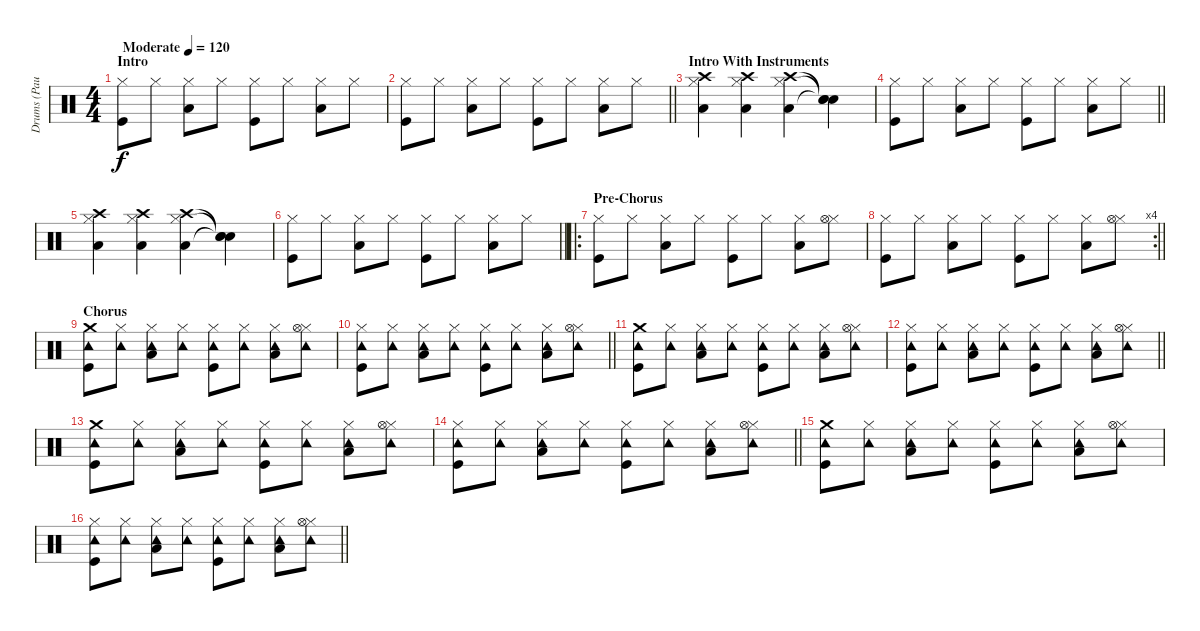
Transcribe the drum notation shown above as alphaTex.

\track ("Drums (Paul Thomson)" "Drums (Pau") {instrument percussion}
\staff
\articulation defaults
\ts (4 4)
\section ("" "Intro")
\tempo (120 "Moderate")
\clef neutral
\ks c
("Hi-Hat (closed)" "Kick (hit)").8{dy f} "Hi-Hat (closed)".8 ("Hi-Hat (closed)" "Low Floor Tom (hit)").8 "Hi-Hat (closed)".8 ("Hi-Hat (closed)" "Kick (hit)").8 "Hi-Hat (closed)".8 ("Hi-Hat (closed)" "Low Floor Tom (hit)").8 "Hi-Hat (closed)".8 |
\barLineRight lightlight
("Hi-Hat (closed)" "Kick (hit)").8 "Hi-Hat (closed)".8 ("Hi-Hat (closed)" "Low Floor Tom (hit)").8 "Hi-Hat (closed)".8 ("Hi-Hat (closed)" "Kick (hit)").8 "Hi-Hat (closed)".8 ("Hi-Hat (closed)" "Low Floor Tom (hit)").8 "Hi-Hat (closed)".8 |
\section ("" "Intro With Instruments")
("Hi-Hat (closed)" "Crash high (hit)" "Low Floor Tom (hit)").4 ("Hi-Hat (closed)" "Crash high (hit)" "Low Floor Tom (hit)").4 ("Hi-Hat (closed)" "Crash high (hit)" "Low Floor Tom (hit)").4 ("Snare (hit)"{t} "Snare (hit)"{t} "Snare (hit)"{t}).4 |
\barLineRight lightlight
("Hi-Hat (closed)" "Kick (hit)").8 "Hi-Hat (closed)".8 ("Hi-Hat (closed)" "Low Floor Tom (hit)").8 "Hi-Hat (closed)".8 ("Hi-Hat (closed)" "Kick (hit)").8 "Hi-Hat (closed)".8 ("Hi-Hat (closed)" "Low Floor Tom (hit)").8 "Hi-Hat (closed)".8 |
("Hi-Hat (closed)" "Crash high (hit)" "Low Floor Tom (hit)").4 ("Hi-Hat (closed)" "Crash high (hit)" "Low Floor Tom (hit)").4 ("Hi-Hat (closed)" "Crash high (hit)" "Low Floor Tom (hit)").4 ("Snare (hit)"{t} "Snare (hit)"{t} "Snare (hit)"{t}).4 |
\barLineRight lightlight
("Hi-Hat (closed)" "Kick (hit)").8 "Hi-Hat (closed)".8 ("Hi-Hat (closed)" "Low Floor Tom (hit)").8 "Hi-Hat (closed)".8 ("Hi-Hat (closed)" "Kick (hit)").8 "Hi-Hat (closed)".8 ("Hi-Hat (closed)" "Low Floor Tom (hit)").8 "Hi-Hat (closed)".8 |
\ro
\section ("" "Pre-Chorus")
("Hi-Hat (closed)" "Kick (hit)").8 "Hi-Hat (closed)".8 ("Hi-Hat (closed)" "Low Floor Tom (hit)").8 "Hi-Hat (closed)".8 ("Hi-Hat (closed)" "Kick (hit)").8 "Hi-Hat (closed)".8 ("Hi-Hat (closed)" "Low Floor Tom (hit)").8 ("Hi-Hat (closed)" "Hi-Hat (open)").8 |
\rc 4
\barLineRight lightlight
("Hi-Hat (closed)" "Kick (hit)").8 "Hi-Hat (closed)".8 ("Hi-Hat (closed)" "Low Floor Tom (hit)").8 "Hi-Hat (closed)".8 ("Hi-Hat (closed)" "Kick (hit)").8 "Hi-Hat (closed)".8 ("Hi-Hat (closed)" "Low Floor Tom (hit)").8 ("Hi-Hat (closed)" "Hi-Hat (open)").8 |
\section ("" "Chorus")
("Crash medium (hit)" "Kick (hit)" "Tambourine (hit)").8 ("Hi-Hat (closed)" "Tambourine (hit)").8 ("Hi-Hat (closed)" "Low Floor Tom (hit)" "Tambourine (hit)").8 ("Hi-Hat (closed)" "Tambourine (hit)").8 ("Hi-Hat (closed)" "Kick (hit)" "Tambourine (hit)").8 ("Hi-Hat (closed)" "Tambourine (hit)").8 ("Hi-Hat (closed)" "Low Floor Tom (hit)" "Tambourine (hit)").8 ("Hi-Hat (closed)" "Hi-Hat (open)" "Tambourine (hit)").8 |
\barLineRight lightlight
("Hi-Hat (closed)" "Kick (hit)" "Tambourine (hit)").8 ("Hi-Hat (closed)" "Tambourine (hit)").8 ("Hi-Hat (closed)" "Low Floor Tom (hit)" "Tambourine (hit)").8 ("Hi-Hat (closed)" "Tambourine (hit)").8 ("Hi-Hat (closed)" "Kick (hit)" "Tambourine (hit)").8 ("Hi-Hat (closed)" "Tambourine (hit)").8 ("Hi-Hat (closed)" "Low Floor Tom (hit)" "Tambourine (hit)").8 ("Hi-Hat (closed)" "Hi-Hat (open)" "Tambourine (hit)").8 |
("Crash medium (hit)" "Kick (hit)" "Tambourine (hit)").8 ("Hi-Hat (closed)" "Tambourine (hit)").8 ("Hi-Hat (closed)" "Low Floor Tom (hit)" "Tambourine (hit)").8 ("Hi-Hat (closed)" "Tambourine (hit)").8 ("Hi-Hat (closed)" "Kick (hit)" "Tambourine (hit)").8 ("Hi-Hat (closed)" "Tambourine (hit)").8 ("Hi-Hat (closed)" "Low Floor Tom (hit)" "Tambourine (hit)").8 ("Hi-Hat (closed)" "Hi-Hat (open)" "Tambourine (hit)").8 |
\barLineRight lightlight
("Hi-Hat (closed)" "Kick (hit)" "Tambourine (hit)").8 ("Hi-Hat (closed)" "Tambourine (hit)").8 ("Hi-Hat (closed)" "Low Floor Tom (hit)" "Tambourine (hit)").8 ("Hi-Hat (closed)" "Tambourine (hit)").8 ("Hi-Hat (closed)" "Kick (hit)" "Tambourine (hit)").8 ("Hi-Hat (closed)" "Tambourine (hit)").8 ("Hi-Hat (closed)" "Low Floor Tom (hit)" "Tambourine (hit)").8 ("Hi-Hat (closed)" "Hi-Hat (open)" "Tambourine (hit)").8 |
("Crash medium (hit)" "Kick (hit)" "Tambourine (hit)").8 ("Hi-Hat (closed)" "Tambourine (hit)").8 ("Hi-Hat (closed)" "Low Floor Tom (hit)" "Tambourine (hit)").8 ("Hi-Hat (closed)" "Tambourine (hit)").8 ("Hi-Hat (closed)" "Kick (hit)" "Tambourine (hit)").8 ("Hi-Hat (closed)" "Tambourine (hit)").8 ("Hi-Hat (closed)" "Low Floor Tom (hit)" "Tambourine (hit)").8 ("Hi-Hat (closed)" "Hi-Hat (open)" "Tambourine (hit)").8 |
\barLineRight lightlight
("Hi-Hat (closed)" "Kick (hit)" "Tambourine (hit)").8 ("Hi-Hat (closed)" "Tambourine (hit)").8 ("Hi-Hat (closed)" "Low Floor Tom (hit)" "Tambourine (hit)").8 ("Hi-Hat (closed)" "Tambourine (hit)").8 ("Hi-Hat (closed)" "Kick (hit)" "Tambourine (hit)").8 ("Hi-Hat (closed)" "Tambourine (hit)").8 ("Hi-Hat (closed)" "Low Floor Tom (hit)" "Tambourine (hit)").8 ("Hi-Hat (closed)" "Hi-Hat (open)" "Tambourine (hit)").8 |
("Crash medium (hit)" "Kick (hit)" "Tambourine (hit)").8 ("Hi-Hat (closed)" "Tambourine (hit)").8 ("Hi-Hat (closed)" "Low Floor Tom (hit)" "Tambourine (hit)").8 ("Hi-Hat (closed)" "Tambourine (hit)").8 ("Hi-Hat (closed)" "Kick (hit)" "Tambourine (hit)").8 ("Hi-Hat (closed)" "Tambourine (hit)").8 ("Hi-Hat (closed)" "Low Floor Tom (hit)" "Tambourine (hit)").8 ("Hi-Hat (closed)" "Hi-Hat (open)" "Tambourine (hit)").8 |
\barLineRight lightlight
("Hi-Hat (closed)" "Kick (hit)" "Tambourine (hit)").8 ("Hi-Hat (closed)" "Tambourine (hit)").8 ("Hi-Hat (closed)" "Low Floor Tom (hit)" "Tambourine (hit)").8 ("Hi-Hat (closed)" "Tambourine (hit)").8 ("Hi-Hat (closed)" "Kick (hit)" "Tambourine (hit)").8 ("Hi-Hat (closed)" "Tambourine (hit)").8 ("Hi-Hat (closed)" "Low Floor Tom (hit)" "Tambourine (hit)").8 ("Hi-Hat (closed)" "Hi-Hat (open)" "Tambourine (hit)").8
